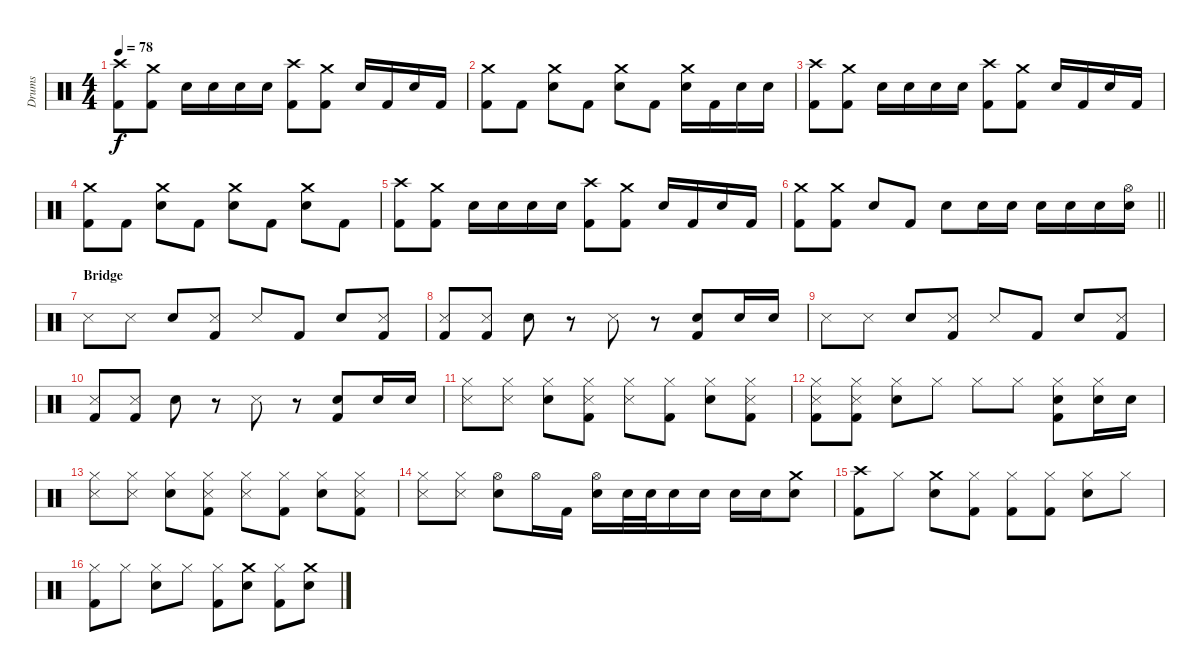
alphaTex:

\track ("Drums" "Drums") {instrument percussion}
\staff {score}
\articulation defaults
\ts (4 4)
\tempo 78
\clef neutral
\ks c
("Crash high (hit)" "Kick (hit) 2").8{dy f} ("Crash medium (hit)" "Kick (hit) 2").8 "Electric Snare (hit)".16 "Electric Snare (hit)".16 "Electric Snare (hit)".16 "Electric Snare (hit)".16 ("Crash high (hit)" "Kick (hit) 2").8 ("Crash medium (hit)" "Kick (hit) 2").8 "Electric Snare (hit)".16 "Kick (hit) 2".16 "Electric Snare (hit)".16 "Kick (hit) 2".16 |
("Crash medium (hit)" "Kick (hit) 2").8 "Kick (hit) 2".8 ("Crash medium (hit)" "Electric Snare (hit)").8 "Kick (hit) 2".8 ("Crash medium (hit)" "Electric Snare (hit)").8 "Kick (hit) 2".8 ("Crash medium (hit)" "Electric Snare (hit)").16 "Kick (hit) 2".16 "Electric Snare (hit)".16 "Electric Snare (hit)".16 |
("Crash high (hit)" "Kick (hit) 2").8 ("Crash medium (hit)" "Kick (hit) 2").8 "Electric Snare (hit)".16 "Electric Snare (hit)".16 "Electric Snare (hit)".16 "Electric Snare (hit)".16 ("Crash high (hit)" "Kick (hit) 2").8 ("Crash medium (hit)" "Kick (hit) 2").8 "Electric Snare (hit)".16 "Kick (hit) 2".16 "Electric Snare (hit)".16 "Kick (hit) 2".16 |
("Crash medium (hit)" "Kick (hit) 2").8 "Kick (hit) 2".8 ("Crash medium (hit)" "Electric Snare (hit)").8 "Kick (hit) 2".8 ("Crash medium (hit)" "Electric Snare (hit)").8 "Kick (hit) 2".8 ("Crash medium (hit)" "Electric Snare (hit)").8 "Kick (hit) 2".8 |
("Crash high (hit)" "Kick (hit) 2").8 ("Crash medium (hit)" "Kick (hit) 2").8 "Electric Snare (hit)".16 "Electric Snare (hit)".16 "Electric Snare (hit)".16 "Electric Snare (hit)".16 ("Crash high (hit)" "Kick (hit) 2").8 ("Crash medium (hit)" "Kick (hit) 2").8 "Electric Snare (hit)".16 "Kick (hit) 2".16 "Electric Snare (hit)".16 "Kick (hit) 2".16 |
\barLineRight lightlight
("Crash medium (hit)" "Kick (hit) 2").8 ("Crash medium (hit)" "Kick (hit) 2").8 "Electric Snare (hit)".8 "Kick (hit) 2".8 "Electric Snare (hit)".8 "Electric Snare (hit)".16 "Electric Snare (hit)".16 "Electric Snare (hit)".16 "Electric Snare (hit)".16 "Electric Snare (hit)".16 ("Electric Snare (hit)" "Hi-Hat (open)").16 |
\section ("" "Bridge")
"Snare (side stick) 3".8 "Snare (side stick) 3".8 "Electric Snare (hit)".8 ("Kick (hit) 2" "Snare (side stick) 3").8 "Snare (side stick) 3".8 "Kick (hit) 2".8 "Electric Snare (hit)".8 ("Snare (side stick) 3" "Kick (hit) 2").8 |
("Snare (side stick) 3" "Kick (hit) 2").8 ("Snare (side stick) 3" "Kick (hit) 2").8 "Electric Snare (hit)".8 r.8 "Snare (side stick) 3".8 r.8 ("Electric Snare (hit)" "Kick (hit) 2").8 "Electric Snare (hit)".16 "Electric Snare (hit)".16 |
"Snare (side stick) 3".8 "Snare (side stick) 3".8 "Electric Snare (hit)".8 ("Kick (hit) 2" "Snare (side stick) 3").8 "Snare (side stick) 3".8 "Kick (hit) 2".8 "Electric Snare (hit)".8 ("Snare (side stick) 3" "Kick (hit) 2").8 |
("Snare (side stick) 3" "Kick (hit) 2").8 ("Snare (side stick) 3" "Kick (hit) 2").8 "Electric Snare (hit)".8 r.8 "Snare (side stick) 3".8 r.8 ("Electric Snare (hit)" "Kick (hit) 2").8 "Electric Snare (hit)".16 "Electric Snare (hit)".16 |
("Snare (side stick) 3" "Hi-Hat (closed)").8 ("Snare (side stick) 3" "Hi-Hat (closed)").8 ("Electric Snare (hit)" "Hi-Hat (closed)").8 ("Kick (hit) 2" "Snare (side stick) 3" "Hi-Hat (closed)").8 ("Snare (side stick) 3" "Hi-Hat (closed)").8 ("Kick (hit) 2" "Hi-Hat (closed)").8 ("Electric Snare (hit)" "Hi-Hat (closed)").8 ("Snare (side stick) 3" "Kick (hit) 2" "Hi-Hat (closed)").8 |
("Snare (side stick) 3" "Kick (hit) 2" "Hi-Hat (closed)").8 ("Snare (side stick) 3" "Kick (hit) 2" "Hi-Hat (closed)").8 ("Electric Snare (hit)" "Hi-Hat (closed)").8 "Hi-Hat (closed)".8 "Hi-Hat (closed)".8 "Hi-Hat (closed)".8 ("Electric Snare (hit)" "Kick (hit) 2" "Hi-Hat (closed)").8 ("Electric Snare (hit)" "Hi-Hat (closed)").16 "Electric Snare (hit)".16 |
("Snare (side stick) 3" "Hi-Hat (closed)").8 ("Snare (side stick) 3" "Hi-Hat (closed)").8 ("Electric Snare (hit)" "Hi-Hat (closed)").8 ("Kick (hit) 2" "Snare (side stick) 3" "Hi-Hat (closed)").8 ("Snare (side stick) 3" "Hi-Hat (closed)").8 ("Kick (hit) 2" "Hi-Hat (closed)").8 ("Electric Snare (hit)" "Hi-Hat (closed)").8 ("Snare (side stick) 3" "Kick (hit) 2" "Hi-Hat (closed)").8 |
("Snare (side stick) 3" "Hi-Hat (closed)").8 ("Snare (side stick) 3" "Hi-Hat (closed)").8 ("Electric Snare (hit)" "Hi-Hat (open)").8 "Hi-Hat (open)".16 "Kick (hit) 2".16 ("Electric Snare (hit)" "Hi-Hat (open)").16 "Electric Snare (hit)".32 "Electric Snare (hit)".32 "Electric Snare (hit)".16 "Electric Snare (hit)".16 "Electric Snare (hit)".16 "Electric Snare (hit)".16 ("Electric Snare (hit)" "Crash medium (hit)").8 |
("Crash high (hit)" "Kick (hit) 2").8 "Hi-Hat (closed)".8 ("Crash medium (hit)" "Electric Snare (hit)").8 ("Hi-Hat (closed)" "Kick (hit) 2").8 ("Hi-Hat (closed)" "Kick (hit) 2").8 ("Hi-Hat (closed)" "Kick (hit) 2").8 ("Hi-Hat (closed)" "Electric Snare (hit)").8 "Hi-Hat (closed)".8 |
("Hi-Hat (closed)" "Kick (hit) 2").8 "Hi-Hat (closed)".8 ("Hi-Hat (closed)" "Electric Snare (hit)").8 "Hi-Hat (closed)".8 ("Hi-Hat (closed)" "Kick (hit) 2").8 ("Crash medium (hit)" "Electric Snare (hit)").8 ("Hi-Hat (closed)" "Kick (hit) 2").8 ("Crash medium (hit)" "Electric Snare (hit)").8
